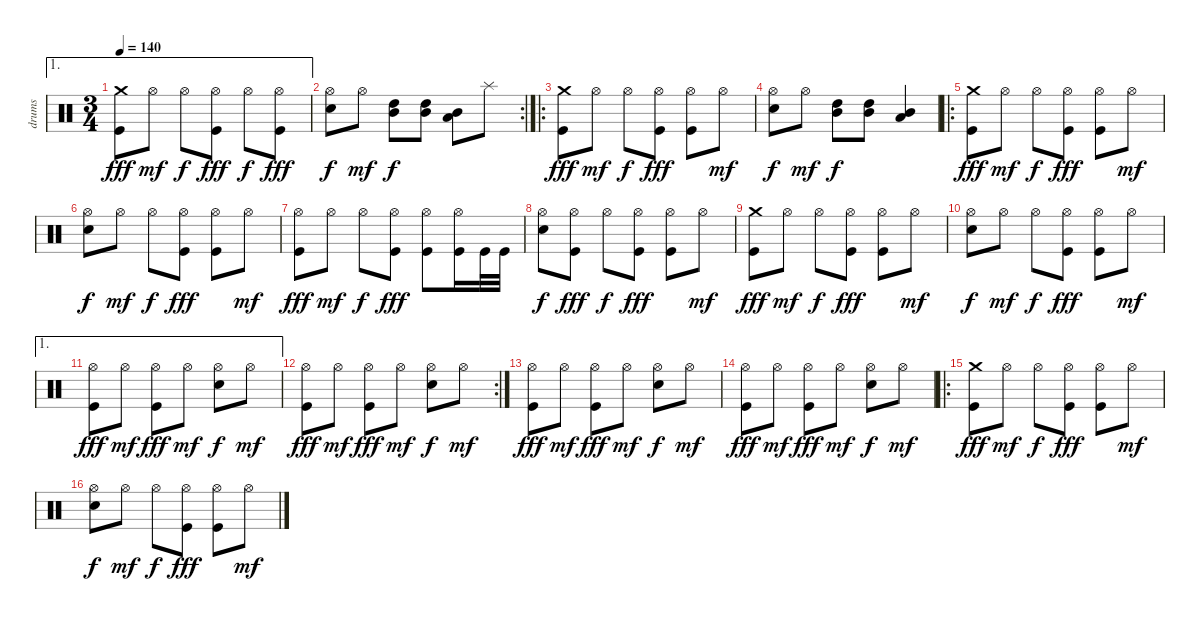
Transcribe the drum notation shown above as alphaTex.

\track ("drums" "drums") {instrument percussion}
\staff {score}
\articulation defaults
\ae 1
\ts (3 4)
\tempo 140
\clef neutral
\ks c
("Crash medium (hit)" "Kick (hit)").8{dy fff} "Hi-Hat (open)".8{dy mf} "Hi-Hat (open)".8{dy f} ("Hi-Hat (open)" "Kick (hit)").8{dy fff} "Hi-Hat (open)".8{dy f} ("Hi-Hat (open)" "Kick (hit)").8{dy fff} |
\rc 2
("Hi-Hat (open)" "Snare (hit) 2").8{dy f} "Hi-Hat (open)".8{dy mf} ("High Tom (hit)" "Mid Tom (hit)").8{dy f} ("High Tom (hit)" "Mid Tom (hit)").8 ("Mid Tom (hit)" "Low Tom (hit)").8 "Splash (hit)".8 |
\ro
("Crash medium (hit)" "Kick (hit)").8{dy fff} "Hi-Hat (open)".8{dy mf} "Hi-Hat (open)".8{dy f} ("Hi-Hat (open)" "Kick (hit)").8{dy fff} ("Hi-Hat (open)" "Kick (hit)").8 "Hi-Hat (open)".8{dy mf} |
("Hi-Hat (open)" "Snare (hit) 2").8{dy f} "Hi-Hat (open)".8{dy mf} ("High Tom (hit)" "Mid Tom (hit)").8{dy f} ("High Tom (hit)" "Mid Tom (hit)").8 ("Mid Tom (hit)" "Low Tom (hit)").4 |
\ro
("Crash medium (hit)" "Kick (hit)").8{dy fff} "Hi-Hat (open)".8{dy mf} "Hi-Hat (open)".8{dy f} ("Hi-Hat (open)" "Kick (hit)").8{dy fff} ("Hi-Hat (open)" "Kick (hit)").8 "Hi-Hat (open)".8{dy mf} |
("Hi-Hat (open)" "Snare (hit) 2").8{dy f} "Hi-Hat (open)".8{dy mf} "Hi-Hat (open)".8{dy f} ("Hi-Hat (open)" "Kick (hit)").8{dy fff} ("Hi-Hat (open)" "Kick (hit)").8 "Hi-Hat (open)".8{dy mf} |
("Hi-Hat (open)" "Kick (hit)").8{dy fff} "Hi-Hat (open)".8{dy mf} "Hi-Hat (open)".8{dy f} ("Hi-Hat (open)" "Kick (hit)").8{dy fff} ("Hi-Hat (open)" "Kick (hit)").8 ("Hi-Hat (open)" "Kick (hit)").16 "Kick (hit)".32 "Kick (hit)".32 |
("Hi-Hat (open)" "Snare (hit) 2").8{dy f} ("Hi-Hat (open)" "Kick (hit)").8{dy fff} "Hi-Hat (open)".8{dy f} ("Hi-Hat (open)" "Kick (hit)").8{dy fff} ("Hi-Hat (open)" "Kick (hit)").8 "Hi-Hat (open)".8{dy mf} |
("Crash medium (hit)" "Kick (hit)").8{dy fff} "Hi-Hat (open)".8{dy mf} "Hi-Hat (open)".8{dy f} ("Hi-Hat (open)" "Kick (hit)").8{dy fff} ("Hi-Hat (open)" "Kick (hit)").8 "Hi-Hat (open)".8{dy mf} |
("Hi-Hat (open)" "Snare (hit) 2").8{dy f} "Hi-Hat (open)".8{dy mf} "Hi-Hat (open)".8{dy f} ("Hi-Hat (open)" "Kick (hit)").8{dy fff} ("Hi-Hat (open)" "Kick (hit)").8 "Hi-Hat (open)".8{dy mf} |
\ae 1
("Hi-Hat (open)" "Kick (hit)").8{dy fff} "Hi-Hat (open)".8{dy mf} ("Hi-Hat (open)" "Kick (hit)").8{dy fff} "Hi-Hat (open)".8{dy mf} ("Hi-Hat (open)" "Snare (hit) 2").8{dy f} "Hi-Hat (open)".8{dy mf} |
\rc 2
("Hi-Hat (open)" "Kick (hit)").8{dy fff} "Hi-Hat (open)".8{dy mf} ("Hi-Hat (open)" "Kick (hit)").8{dy fff} "Hi-Hat (open)".8{dy mf} ("Hi-Hat (open)" "Snare (hit) 2").8{dy f} "Hi-Hat (open)".8{dy mf} |
("Hi-Hat (open)" "Kick (hit)").8{dy fff} "Hi-Hat (open)".8{dy mf} ("Hi-Hat (open)" "Kick (hit)").8{dy fff} "Hi-Hat (open)".8{dy mf} ("Hi-Hat (open)" "Snare (hit) 2").8{dy f} "Hi-Hat (open)".8{dy mf} |
("Hi-Hat (open)" "Kick (hit)").8{dy fff} "Hi-Hat (open)".8{dy mf} ("Hi-Hat (open)" "Kick (hit)").8{dy fff} "Hi-Hat (open)".8{dy mf} ("Hi-Hat (open)" "Snare (hit) 2").8{dy f} "Hi-Hat (open)".8{dy mf} |
\ro
("Crash medium (hit)" "Kick (hit)").8{dy fff} "Hi-Hat (open)".8{dy mf} "Hi-Hat (open)".8{dy f} ("Hi-Hat (open)" "Kick (hit)").8{dy fff} ("Hi-Hat (open)" "Kick (hit)").8 "Hi-Hat (open)".8{dy mf} |
("Hi-Hat (open)" "Snare (hit) 2").8{dy f} "Hi-Hat (open)".8{dy mf} "Hi-Hat (open)".8{dy f} ("Hi-Hat (open)" "Kick (hit)").8{dy fff} ("Hi-Hat (open)" "Kick (hit)").8 "Hi-Hat (open)".8{dy mf}
